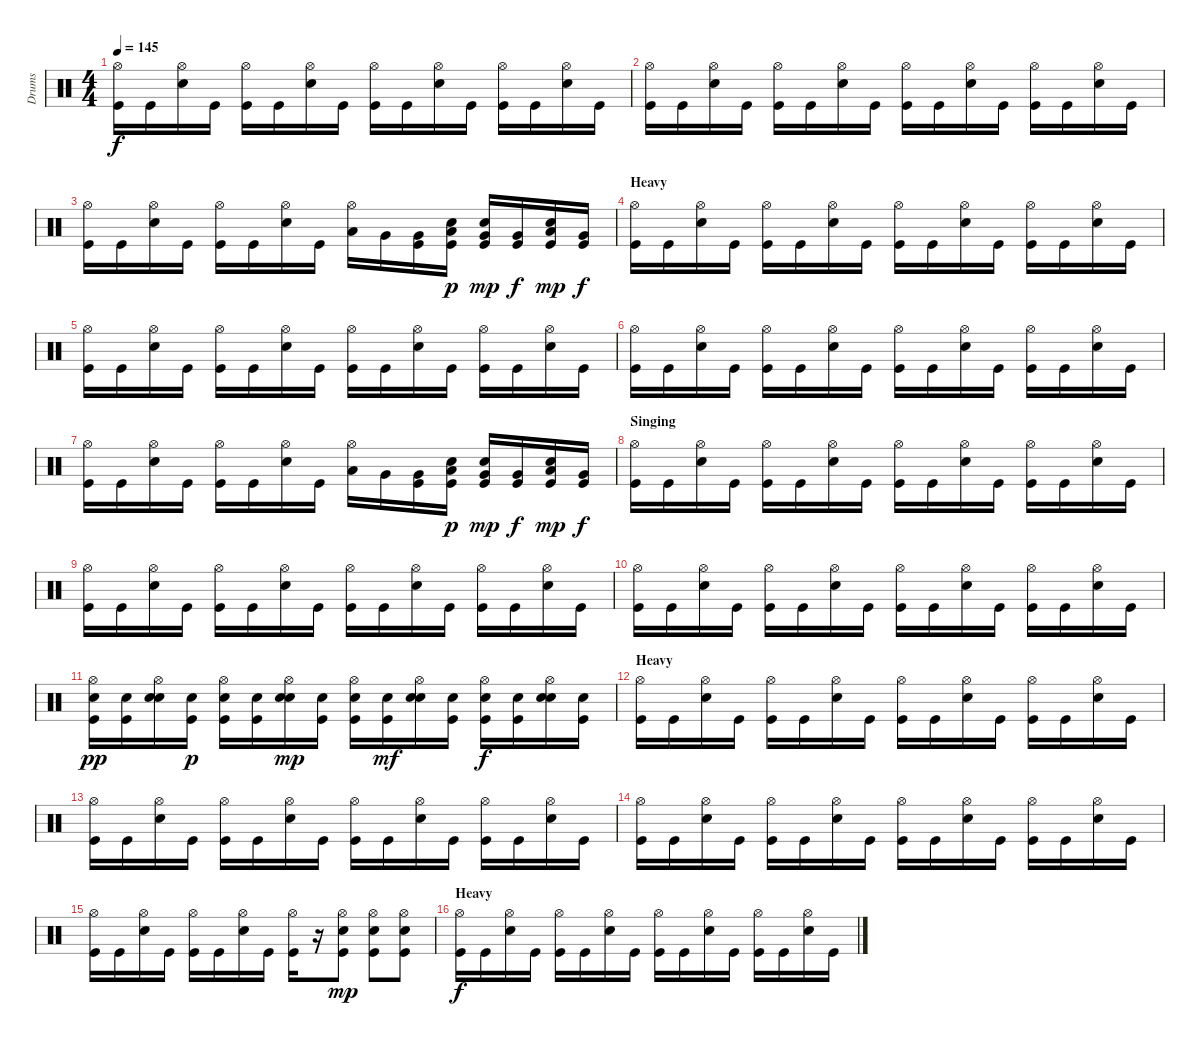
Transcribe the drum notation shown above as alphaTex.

\track ("Drums" "Drums") {instrument percussion}
\staff {score}
\articulation defaults
\ts (4 4)
\tempo 145
\clef neutral
\ks c
("Hi-Hat (open)" "Kick (hit)").16{dy f} "Kick (hit)".16 ("Hi-Hat (open)" "Electric Snare (hit)").16 "Kick (hit)".16 ("Hi-Hat (open)" "Kick (hit)").16 "Kick (hit)".16 ("Hi-Hat (open)" "Electric Snare (hit)").16 "Kick (hit)".16 ("Hi-Hat (open)" "Kick (hit)").16 "Kick (hit)".16 ("Hi-Hat (open)" "Electric Snare (hit)").16 "Kick (hit)".16 ("Hi-Hat (open)" "Kick (hit)").16 "Kick (hit)".16 ("Hi-Hat (open)" "Electric Snare (hit)").16 "Kick (hit)".16 |
("Hi-Hat (open)" "Kick (hit)").16 "Kick (hit)".16 ("Hi-Hat (open)" "Electric Snare (hit)").16 "Kick (hit)".16 ("Hi-Hat (open)" "Kick (hit)").16 "Kick (hit)".16 ("Hi-Hat (open)" "Electric Snare (hit)").16 "Kick (hit)".16 ("Hi-Hat (open)" "Kick (hit)").16 "Kick (hit)".16 ("Hi-Hat (open)" "Electric Snare (hit)").16 "Kick (hit)".16 ("Hi-Hat (open)" "Kick (hit)").16 "Kick (hit)".16 ("Hi-Hat (open)" "Electric Snare (hit)").16 "Kick (hit)".16 |
("Hi-Hat (open)" "Kick (hit)").16 "Kick (hit)".16 ("Hi-Hat (open)" "Electric Snare (hit)").16 "Kick (hit)".16 ("Hi-Hat (open)" "Kick (hit)").16 "Kick (hit)".16 ("Hi-Hat (open)" "Electric Snare (hit)").16 "Kick (hit)".16 ("Hi-Hat (open)" "Low Tom (hit)").16 "Very Low Tom (hit)".16 ("Very Low Tom (hit)" "Kick (hit)").16 ("Snare (hit) 2" "Low Tom (hit)" "Kick (hit)").16{dy p} ("Snare (hit) 2" "Very Low Tom (hit)" "Kick (hit)").16{dy mp} ("Very Low Tom (hit)" "Kick (hit)").16{dy f} ("Snare (hit) 2" "Low Floor Tom (hit)" "Kick (hit)").16{dy mp} ("Very Low Tom (hit)" "Kick (hit)").16{dy f} |
\section ("" "Heavy")
("Hi-Hat (open)" "Kick (hit)").16 "Kick (hit)".16 ("Hi-Hat (open)" "Electric Snare (hit)").16 "Kick (hit)".16 ("Hi-Hat (open)" "Kick (hit)").16 "Kick (hit)".16 ("Hi-Hat (open)" "Electric Snare (hit)").16 "Kick (hit)".16 ("Hi-Hat (open)" "Kick (hit)").16 "Kick (hit)".16 ("Hi-Hat (open)" "Electric Snare (hit)").16 "Kick (hit)".16 ("Hi-Hat (open)" "Kick (hit)").16 "Kick (hit)".16 ("Hi-Hat (open)" "Electric Snare (hit)").16 "Kick (hit)".16 |
("Hi-Hat (open)" "Kick (hit)").16 "Kick (hit)".16 ("Hi-Hat (open)" "Electric Snare (hit)").16 "Kick (hit)".16 ("Hi-Hat (open)" "Kick (hit)").16 "Kick (hit)".16 ("Hi-Hat (open)" "Electric Snare (hit)").16 "Kick (hit)".16 ("Hi-Hat (open)" "Kick (hit)").16 "Kick (hit)".16 ("Hi-Hat (open)" "Electric Snare (hit)").16 "Kick (hit)".16 ("Hi-Hat (open)" "Kick (hit)").16 "Kick (hit)".16 ("Hi-Hat (open)" "Electric Snare (hit)").16 "Kick (hit)".16 |
("Hi-Hat (open)" "Kick (hit)").16 "Kick (hit)".16 ("Hi-Hat (open)" "Electric Snare (hit)").16 "Kick (hit)".16 ("Hi-Hat (open)" "Kick (hit)").16 "Kick (hit)".16 ("Hi-Hat (open)" "Electric Snare (hit)").16 "Kick (hit)".16 ("Hi-Hat (open)" "Kick (hit)").16 "Kick (hit)".16 ("Hi-Hat (open)" "Electric Snare (hit)").16 "Kick (hit)".16 ("Hi-Hat (open)" "Kick (hit)").16 "Kick (hit)".16 ("Hi-Hat (open)" "Electric Snare (hit)").16 "Kick (hit)".16 |
("Hi-Hat (open)" "Kick (hit)").16 "Kick (hit)".16 ("Hi-Hat (open)" "Electric Snare (hit)").16 "Kick (hit)".16 ("Hi-Hat (open)" "Kick (hit)").16 "Kick (hit)".16 ("Hi-Hat (open)" "Electric Snare (hit)").16 "Kick (hit)".16 ("Hi-Hat (open)" "Low Tom (hit)").16 "Very Low Tom (hit)".16 ("Very Low Tom (hit)" "Kick (hit)").16 ("Snare (hit) 2" "Low Tom (hit)" "Kick (hit)").16{dy p} ("Snare (hit) 2" "Very Low Tom (hit)" "Kick (hit)").16{dy mp} ("Very Low Tom (hit)" "Kick (hit)").16{dy f} ("Snare (hit) 2" "Low Floor Tom (hit)" "Kick (hit)").16{dy mp} ("Very Low Tom (hit)" "Kick (hit)").16{dy f} |
\section ("" "Singing")
("Hi-Hat (open)" "Kick (hit)").16 "Kick (hit)".16 ("Hi-Hat (open)" "Electric Snare (hit)").16 "Kick (hit)".16 ("Hi-Hat (open)" "Kick (hit)").16 "Kick (hit)".16 ("Hi-Hat (open)" "Electric Snare (hit)").16 "Kick (hit)".16 ("Hi-Hat (open)" "Kick (hit)").16 "Kick (hit)".16 ("Hi-Hat (open)" "Electric Snare (hit)").16 "Kick (hit)".16 ("Hi-Hat (open)" "Kick (hit)").16 "Kick (hit)".16 ("Hi-Hat (open)" "Electric Snare (hit)").16 "Kick (hit)".16 |
("Hi-Hat (open)" "Kick (hit)").16 "Kick (hit)".16 ("Hi-Hat (open)" "Electric Snare (hit)").16 "Kick (hit)".16 ("Hi-Hat (open)" "Kick (hit)").16 "Kick (hit)".16 ("Hi-Hat (open)" "Electric Snare (hit)").16 "Kick (hit)".16 ("Hi-Hat (open)" "Kick (hit)").16 "Kick (hit)".16 ("Hi-Hat (open)" "Electric Snare (hit)").16 "Kick (hit)".16 ("Hi-Hat (open)" "Kick (hit)").16 "Kick (hit)".16 ("Hi-Hat (open)" "Electric Snare (hit)").16 "Kick (hit)".16 |
("Hi-Hat (open)" "Kick (hit)").16 "Kick (hit)".16 ("Hi-Hat (open)" "Electric Snare (hit)").16 "Kick (hit)".16 ("Hi-Hat (open)" "Kick (hit)").16 "Kick (hit)".16 ("Hi-Hat (open)" "Electric Snare (hit)").16 "Kick (hit)".16 ("Hi-Hat (open)" "Kick (hit)").16 "Kick (hit)".16 ("Hi-Hat (open)" "Electric Snare (hit)").16 "Kick (hit)".16 ("Hi-Hat (open)" "Kick (hit)").16 "Kick (hit)".16 ("Hi-Hat (open)" "Electric Snare (hit)").16 "Kick (hit)".16 |
("Hi-Hat (open)" "Snare (hit) 2" "Kick (hit)").16{dy pp} ("Snare (hit) 2" "Kick (hit)").16 ("Hi-Hat (open)" "Electric Snare (hit)" "Snare (hit) 2").16 ("Snare (hit) 2" "Kick (hit)").16{dy p} ("Hi-Hat (open)" "Snare (hit) 2" "Kick (hit)").16 ("Snare (hit) 2" "Kick (hit)").16 ("Hi-Hat (open)" "Electric Snare (hit)" "Snare (hit) 2").16{dy mp} ("Snare (hit) 2" "Kick (hit)").16 ("Hi-Hat (open)" "Snare (hit) 2" "Kick (hit)").16 ("Snare (hit) 2" "Kick (hit)").16{dy mf} ("Hi-Hat (open)" "Electric Snare (hit)" "Snare (hit) 2").16 ("Snare (hit) 2" "Kick (hit)").16 ("Hi-Hat (open)" "Snare (hit) 2" "Kick (hit)").16{dy f} ("Snare (hit) 2" "Kick (hit)").16 ("Hi-Hat (open)" "Electric Snare (hit)" "Snare (hit) 2").16 ("Snare (hit) 2" "Kick (hit)").16 |
\section ("" "Heavy")
("Hi-Hat (open)" "Kick (hit)").16 "Kick (hit)".16 ("Hi-Hat (open)" "Electric Snare (hit)").16 "Kick (hit)".16 ("Hi-Hat (open)" "Kick (hit)").16 "Kick (hit)".16 ("Hi-Hat (open)" "Electric Snare (hit)").16 "Kick (hit)".16 ("Hi-Hat (open)" "Kick (hit)").16 "Kick (hit)".16 ("Hi-Hat (open)" "Electric Snare (hit)").16 "Kick (hit)".16 ("Hi-Hat (open)" "Kick (hit)").16 "Kick (hit)".16 ("Hi-Hat (open)" "Electric Snare (hit)").16 "Kick (hit)".16 |
("Hi-Hat (open)" "Kick (hit)").16 "Kick (hit)".16 ("Hi-Hat (open)" "Electric Snare (hit)").16 "Kick (hit)".16 ("Hi-Hat (open)" "Kick (hit)").16 "Kick (hit)".16 ("Hi-Hat (open)" "Electric Snare (hit)").16 "Kick (hit)".16 ("Hi-Hat (open)" "Kick (hit)").16 "Kick (hit)".16 ("Hi-Hat (open)" "Electric Snare (hit)").16 "Kick (hit)".16 ("Hi-Hat (open)" "Kick (hit)").16 "Kick (hit)".16 ("Hi-Hat (open)" "Electric Snare (hit)").16 "Kick (hit)".16 |
("Hi-Hat (open)" "Kick (hit)").16 "Kick (hit)".16 ("Hi-Hat (open)" "Electric Snare (hit)").16 "Kick (hit)".16 ("Hi-Hat (open)" "Kick (hit)").16 "Kick (hit)".16 ("Hi-Hat (open)" "Electric Snare (hit)").16 "Kick (hit)".16 ("Hi-Hat (open)" "Kick (hit)").16 "Kick (hit)".16 ("Hi-Hat (open)" "Electric Snare (hit)").16 "Kick (hit)".16 ("Hi-Hat (open)" "Kick (hit)").16 "Kick (hit)".16 ("Hi-Hat (open)" "Electric Snare (hit)").16 "Kick (hit)".16 |
("Hi-Hat (open)" "Kick (hit)").16 "Kick (hit)".16 ("Hi-Hat (open)" "Electric Snare (hit)").16 "Kick (hit)".16 ("Hi-Hat (open)" "Kick (hit)").16 "Kick (hit)".16 ("Hi-Hat (open)" "Electric Snare (hit)").16 "Kick (hit)".16 ("Hi-Hat (open)" "Kick (hit)").16 r.16 ("Hi-Hat (open)" "Electric Snare (hit)" "Kick (hit)").8{dy mp} ("Hi-Hat (open)" "Electric Snare (hit)" "Kick (hit)").8 ("Hi-Hat (open)" "Electric Snare (hit)" "Kick (hit)").8 |
\section ("" "Heavy")
("Hi-Hat (open)" "Kick (hit)").16{dy f} "Kick (hit)".16 ("Hi-Hat (open)" "Electric Snare (hit)").16 "Kick (hit)".16 ("Hi-Hat (open)" "Kick (hit)").16 "Kick (hit)".16 ("Hi-Hat (open)" "Electric Snare (hit)").16 "Kick (hit)".16 ("Hi-Hat (open)" "Kick (hit)").16 "Kick (hit)".16 ("Hi-Hat (open)" "Electric Snare (hit)").16 "Kick (hit)".16 ("Hi-Hat (open)" "Kick (hit)").16 "Kick (hit)".16 ("Hi-Hat (open)" "Electric Snare (hit)").16 "Kick (hit)".16
